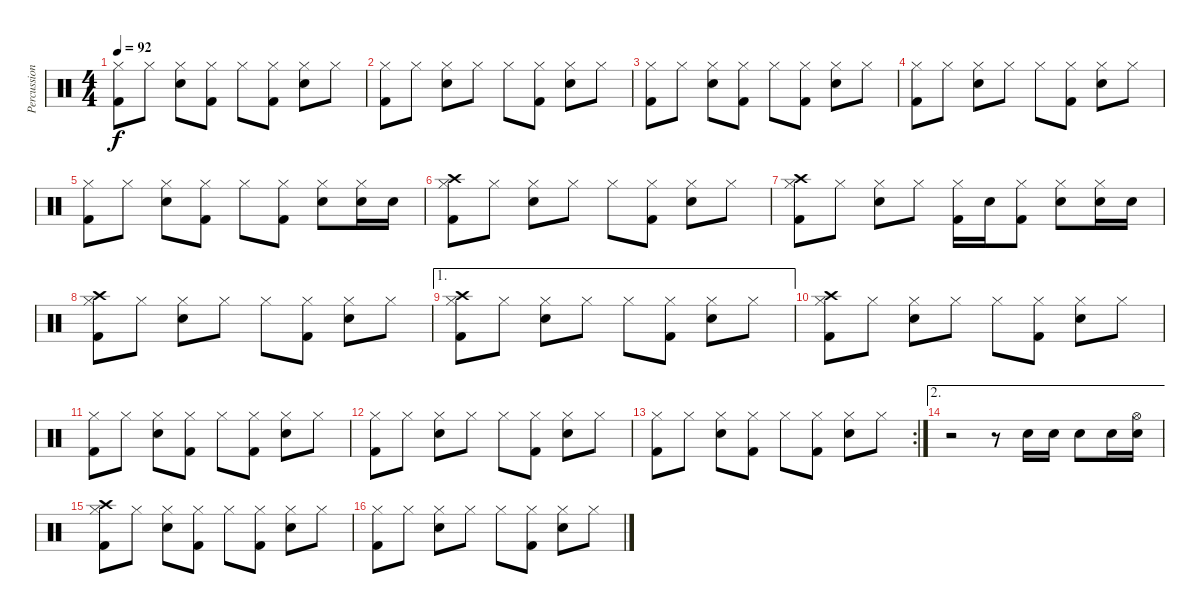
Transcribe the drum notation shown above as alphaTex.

\track ("Percussion" "Percussion") {instrument percussion}
\staff {score}
\articulation defaults
\ts (4 4)
\tempo 92
\clef neutral
\ks c
("Hi-Hat (closed)" "Kick (hit) 2").8{dy f} "Hi-Hat (closed)".8 ("Hi-Hat (closed)" "Snare (hit) 2").8 ("Hi-Hat (closed)" "Kick (hit) 2").8 "Hi-Hat (closed)".8 ("Hi-Hat (closed)" "Kick (hit) 2").8 ("Hi-Hat (closed)" "Snare (hit) 2").8 "Hi-Hat (closed)".8 |
("Hi-Hat (closed)" "Kick (hit) 2").8 "Hi-Hat (closed)".8 ("Hi-Hat (closed)" "Snare (hit) 2").8 "Hi-Hat (closed)".8 "Hi-Hat (closed)".8 ("Hi-Hat (closed)" "Kick (hit) 2").8 ("Hi-Hat (closed)" "Snare (hit) 2").8 "Hi-Hat (closed)".8 |
("Hi-Hat (closed)" "Kick (hit) 2").8 "Hi-Hat (closed)".8 ("Hi-Hat (closed)" "Snare (hit) 2").8 ("Hi-Hat (closed)" "Kick (hit) 2").8 "Hi-Hat (closed)".8 ("Hi-Hat (closed)" "Kick (hit) 2").8 ("Hi-Hat (closed)" "Snare (hit) 2").8 "Hi-Hat (closed)".8 |
("Hi-Hat (closed)" "Kick (hit) 2").8 "Hi-Hat (closed)".8 ("Hi-Hat (closed)" "Snare (hit) 2").8 "Hi-Hat (closed)".8 "Hi-Hat (closed)".8 ("Hi-Hat (closed)" "Kick (hit) 2").8 ("Hi-Hat (closed)" "Snare (hit) 2").8 "Hi-Hat (closed)".8 |
("Hi-Hat (closed)" "Kick (hit) 2").8 "Hi-Hat (closed)".8 ("Hi-Hat (closed)" "Snare (hit) 2").8 ("Hi-Hat (closed)" "Kick (hit) 2").8 "Hi-Hat (closed)".8 ("Hi-Hat (closed)" "Kick (hit) 2").8 ("Hi-Hat (closed)" "Snare (hit) 2").8 ("Hi-Hat (closed)" "Snare (hit) 2").16 "Snare (hit) 2".16 |
("Crash high (hit)" "Hi-Hat (closed)" "Kick (hit) 2").8 "Hi-Hat (closed)".8 ("Hi-Hat (closed)" "Snare (hit) 2").8 "Hi-Hat (closed)".8 "Hi-Hat (closed)".8 ("Hi-Hat (closed)" "Kick (hit) 2").8 ("Hi-Hat (closed)" "Snare (hit) 2").8 "Hi-Hat (closed)".8 |
("Crash high (hit)" "Hi-Hat (closed)" "Kick (hit) 2").8 "Hi-Hat (closed)".8 ("Hi-Hat (closed)" "Snare (hit) 2").8 "Hi-Hat (closed)".8 ("Hi-Hat (closed)" "Kick (hit) 2").16 "Snare (hit) 2".16 ("Hi-Hat (closed)" "Kick (hit) 2").8 ("Hi-Hat (closed)" "Snare (hit) 2").8 ("Hi-Hat (closed)" "Snare (hit) 2").16 "Snare (hit) 2".16 |
("Crash high (hit)" "Hi-Hat (closed)" "Kick (hit) 2").8 "Hi-Hat (closed)".8 ("Hi-Hat (closed)" "Snare (hit) 2").8 "Hi-Hat (closed)".8 "Hi-Hat (closed)".8 ("Hi-Hat (closed)" "Kick (hit) 2").8 ("Hi-Hat (closed)" "Snare (hit) 2").8 "Hi-Hat (closed)".8 |
\ae 1
("Crash high (hit)" "Hi-Hat (closed)" "Kick (hit) 2").8 "Hi-Hat (closed)".8 ("Hi-Hat (closed)" "Snare (hit) 2").8 "Hi-Hat (closed)".8 "Hi-Hat (closed)".8 ("Hi-Hat (closed)" "Kick (hit) 2").8 ("Hi-Hat (closed)" "Snare (hit) 2").8 "Hi-Hat (closed)".8 |
("Crash high (hit)" "Hi-Hat (closed)" "Kick (hit) 2").8 "Hi-Hat (closed)".8 ("Hi-Hat (closed)" "Snare (hit) 2").8 "Hi-Hat (closed)".8 "Hi-Hat (closed)".8 ("Hi-Hat (closed)" "Kick (hit) 2").8 ("Hi-Hat (closed)" "Snare (hit) 2").8 "Hi-Hat (closed)".8 |
("Hi-Hat (closed)" "Kick (hit) 2").8 "Hi-Hat (closed)".8 ("Hi-Hat (closed)" "Snare (hit) 2").8 ("Hi-Hat (closed)" "Kick (hit) 2").8 "Hi-Hat (closed)".8 ("Hi-Hat (closed)" "Kick (hit) 2").8 ("Hi-Hat (closed)" "Snare (hit) 2").8 "Hi-Hat (closed)".8 |
("Hi-Hat (closed)" "Kick (hit) 2").8 "Hi-Hat (closed)".8 ("Hi-Hat (closed)" "Snare (hit) 2").8 "Hi-Hat (closed)".8 "Hi-Hat (closed)".8 ("Hi-Hat (closed)" "Kick (hit) 2").8 ("Hi-Hat (closed)" "Snare (hit) 2").8 "Hi-Hat (closed)".8 |
\rc 2
("Hi-Hat (closed)" "Kick (hit) 2").8 "Hi-Hat (closed)".8 ("Hi-Hat (closed)" "Snare (hit) 2").8 ("Hi-Hat (closed)" "Kick (hit) 2").8 "Hi-Hat (closed)".8 ("Hi-Hat (closed)" "Kick (hit) 2").8 ("Hi-Hat (closed)" "Snare (hit) 2").8 "Hi-Hat (closed)".8 |
\ae 2
r.2 r.8 "Snare (hit) 2".16 "Snare (hit) 2".16 "Snare (hit) 2".8 "Snare (hit) 2".16 ("Hi-Hat (open)" "Snare (hit) 2").16 |
("Crash high (hit)" "Hi-Hat (closed)" "Kick (hit) 2").8 "Hi-Hat (closed)".8 ("Hi-Hat (closed)" "Snare (hit) 2").8 ("Hi-Hat (closed)" "Kick (hit) 2").8 "Hi-Hat (closed)".8 ("Hi-Hat (closed)" "Kick (hit) 2").8 ("Hi-Hat (closed)" "Snare (hit) 2").8 "Hi-Hat (closed)".8 |
("Hi-Hat (closed)" "Kick (hit) 2").8 "Hi-Hat (closed)".8 ("Hi-Hat (closed)" "Snare (hit) 2").8 "Hi-Hat (closed)".8 "Hi-Hat (closed)".8 ("Hi-Hat (closed)" "Kick (hit) 2").8 ("Hi-Hat (closed)" "Snare (hit) 2").8 "Hi-Hat (closed)".8
